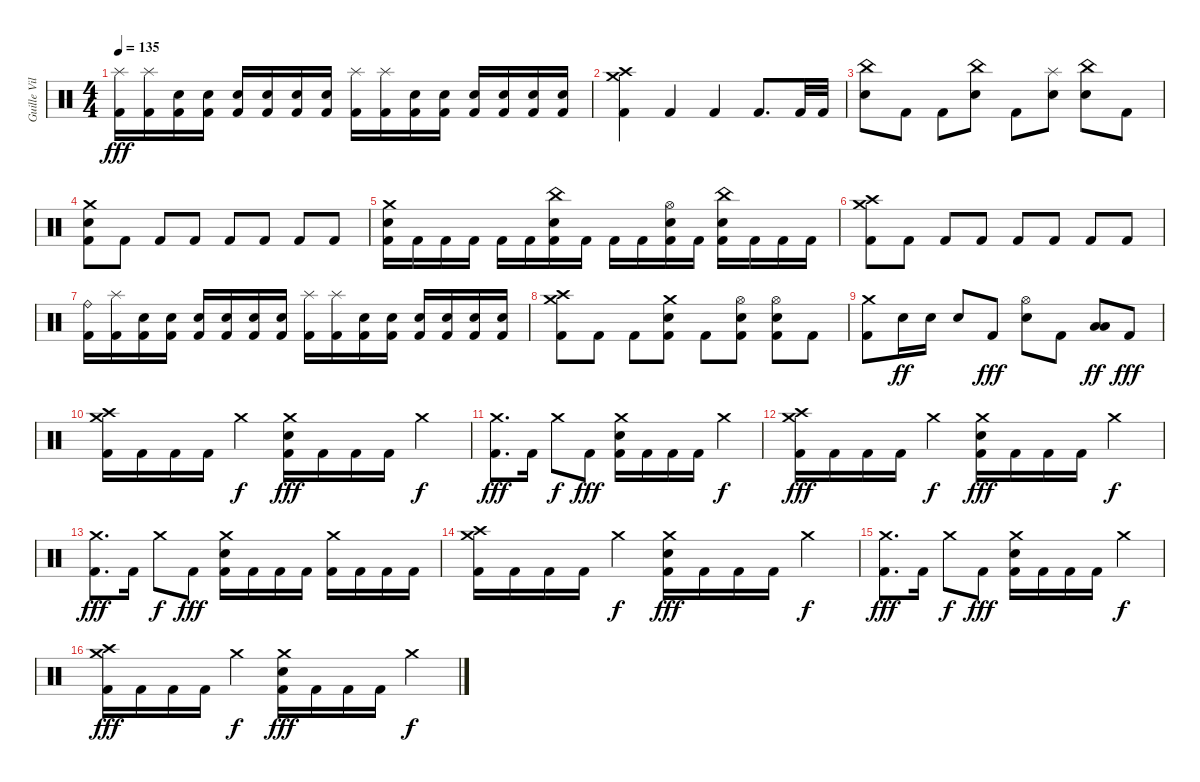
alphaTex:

\track ("Guille Vila" "Guille Vil") {instrument percussion}
\staff {score}
\articulation defaults
\ts (4 4)
\tempo 135
\clef neutral
\ks c
("Splash (hit)" "Kick (hit) 2").16{dy fff} ("Splash (hit)" "Kick (hit) 2").16 ("Snare (hit) 2" "Kick (hit) 2").16 ("Snare (hit) 2" "Kick (hit) 2").16 ("Snare (hit) 2" "Kick (hit) 2").16 ("Snare (hit) 2" "Kick (hit) 2").16 ("Snare (hit) 2" "Kick (hit) 2").16 ("Snare (hit) 2" "Kick (hit) 2").16 ("Splash (hit)" "Kick (hit) 2").16 ("Splash (hit)" "Kick (hit) 2").16 ("Snare (hit) 2" "Kick (hit) 2").16 ("Snare (hit) 2" "Kick (hit) 2").16 ("Snare (hit) 2" "Kick (hit) 2").16 ("Snare (hit) 2" "Kick (hit) 2").16 ("Snare (hit) 2" "Kick (hit) 2").16 ("Snare (hit) 2" "Kick (hit) 2").16 |
("Crash medium (hit)" "Crash high (hit)" "Kick (hit) 2").4 "Kick (hit) 2".4 "Kick (hit) 2".4 "Kick (hit) 2".8{d} "Kick (hit) 2".32 "Kick (hit) 2".32 |
("China (hit)" "Snare (hit) 2").8 "Kick (hit) 2".8 "Kick (hit) 2".8 ("China (hit)" "Snare (hit) 2").8 "Kick (hit) 2".8 ("Splash (hit)" "Snare (hit) 2").8 ("China (hit)" "Snare (hit) 2").8 "Kick (hit) 2".8 |
("Crash medium (hit)" "Snare (hit) 2" "Kick (hit) 2").8 "Kick (hit) 2".8 "Kick (hit) 2".8 "Kick (hit) 2".8 "Kick (hit) 2".8 "Kick (hit) 2".8 "Kick (hit) 2".8 "Kick (hit) 2".8 |
("Crash medium (hit)" "Snare (hit) 2" "Kick (hit) 2").16 "Kick (hit) 2".16 "Kick (hit) 2".16 "Kick (hit) 2".16 "Kick (hit) 2".16 "Kick (hit) 2".16 ("China (hit)" "Snare (hit) 2" "Kick (hit) 2").16 "Kick (hit) 2".16 "Kick (hit) 2".16 "Kick (hit) 2".16 ("Hi-Hat (open)" "Snare (hit) 2" "Kick (hit) 2").16 "Kick (hit) 2".16 ("China (hit)" "Snare (hit) 2" "Kick (hit) 2").16 "Kick (hit) 2".16 "Kick (hit) 2".16 "Kick (hit) 2".16 |
("Crash medium (hit)" "Crash high (hit)" "Kick (hit) 2").8 "Kick (hit) 2".8 "Kick (hit) 2".8 "Kick (hit) 2".8 "Kick (hit) 2".8 "Kick (hit) 2".8 "Kick (hit) 2".8 "Kick (hit) 2".8 |
("Ride (bell)" "Kick (hit) 2").16 ("Splash (hit)" "Kick (hit) 2").16 ("Snare (hit) 2" "Kick (hit) 2").16 ("Snare (hit) 2" "Kick (hit) 2").16 ("Snare (hit) 2" "Kick (hit) 2").16 ("Snare (hit) 2" "Kick (hit) 2").16 ("Snare (hit) 2" "Kick (hit) 2").16 ("Snare (hit) 2" "Kick (hit) 2").16 ("Splash (hit)" "Kick (hit) 2").16 ("Splash (hit)" "Kick (hit) 2").16 ("Snare (hit) 2" "Kick (hit) 2").16 ("Snare (hit) 2" "Kick (hit) 2").16 ("Snare (hit) 2" "Kick (hit) 2").16 ("Snare (hit) 2" "Kick (hit) 2").16 ("Snare (hit) 2" "Kick (hit) 2").16 ("Snare (hit) 2" "Kick (hit) 2").16 |
("Crash medium (hit)" "Crash high (hit)" "Kick (hit) 2").8 "Kick (hit) 2".8 "Kick (hit) 2".8 ("Crash medium (hit)" "Snare (hit) 2" "Kick (hit) 2").8 "Kick (hit) 2".8 ("Hi-Hat (open)" "Snare (hit) 2" "Kick (hit) 2").8 ("Hi-Hat (open)" "Snare (hit) 2" "Kick (hit) 2").8 "Kick (hit) 2".8 |
("Crash medium (hit)" "Kick (hit) 2").8 "Snare (hit) 2".16{dy ff} "Snare (hit) 2".16 "Snare (hit) 2".8 "Kick (hit) 2".8{dy fff} ("Hi-Hat (open)" "Snare (hit) 2").8 "Kick (hit) 2".8 ("Low Tom (hit)" "Low Floor Tom (hit)").8{dy ff} "Kick (hit) 2".8{dy fff} |
("Crash high (hit)" "Crash medium (hit)" "Kick (hit) 2").16 "Kick (hit) 2".16 "Kick (hit) 2".16 "Kick (hit) 2".16 "Crash medium (hit)".4{dy f} ("Crash medium (hit)" "Snare (hit) 2" "Kick (hit) 2").16{dy fff} "Kick (hit) 2".16 "Kick (hit) 2".16 "Kick (hit) 2".16 "Crash medium (hit)".4{dy f} |
("Crash medium (hit)" "Kick (hit) 2").8{d dy fff} "Kick (hit) 2".16 "Crash medium (hit)".8{dy f} "Kick (hit) 2".8{dy fff} ("Crash medium (hit)" "Snare (hit) 2" "Kick (hit) 2").16 "Kick (hit) 2".16 "Kick (hit) 2".16 "Kick (hit) 2".16 "Crash medium (hit)".4{dy f} |
("Crash high (hit)" "Crash medium (hit)" "Kick (hit) 2").16{dy fff} "Kick (hit) 2".16 "Kick (hit) 2".16 "Kick (hit) 2".16 "Crash medium (hit)".4{dy f} ("Crash medium (hit)" "Snare (hit) 2" "Kick (hit) 2").16{dy fff} "Kick (hit) 2".16 "Kick (hit) 2".16 "Kick (hit) 2".16 "Crash medium (hit)".4{dy f} |
("Crash medium (hit)" "Kick (hit) 2").8{d dy fff} "Kick (hit) 2".16 "Crash medium (hit)".8{dy f} "Kick (hit) 2".8{dy fff} ("Crash medium (hit)" "Snare (hit) 2" "Kick (hit) 2").16 "Kick (hit) 2".16 "Kick (hit) 2".16 "Kick (hit) 2".16 ("Crash medium (hit)" "Kick (hit) 2").16 "Kick (hit) 2".16 "Kick (hit) 2".16 "Kick (hit) 2".16 |
("Crash high (hit)" "Crash medium (hit)" "Kick (hit) 2").16 "Kick (hit) 2".16 "Kick (hit) 2".16 "Kick (hit) 2".16 "Crash medium (hit)".4{dy f} ("Crash medium (hit)" "Snare (hit) 2" "Kick (hit) 2").16{dy fff} "Kick (hit) 2".16 "Kick (hit) 2".16 "Kick (hit) 2".16 "Crash medium (hit)".4{dy f} |
("Crash medium (hit)" "Kick (hit) 2").8{d dy fff} "Kick (hit) 2".16 "Crash medium (hit)".8{dy f} "Kick (hit) 2".8{dy fff} ("Crash medium (hit)" "Snare (hit) 2" "Kick (hit) 2").16 "Kick (hit) 2".16 "Kick (hit) 2".16 "Kick (hit) 2".16 "Crash medium (hit)".4{dy f} |
("Crash high (hit)" "Crash medium (hit)" "Kick (hit) 2").16{dy fff} "Kick (hit) 2".16 "Kick (hit) 2".16 "Kick (hit) 2".16 "Crash medium (hit)".4{dy f} ("Crash medium (hit)" "Snare (hit) 2" "Kick (hit) 2").16{dy fff} "Kick (hit) 2".16 "Kick (hit) 2".16 "Kick (hit) 2".16 "Crash medium (hit)".4{dy f}
